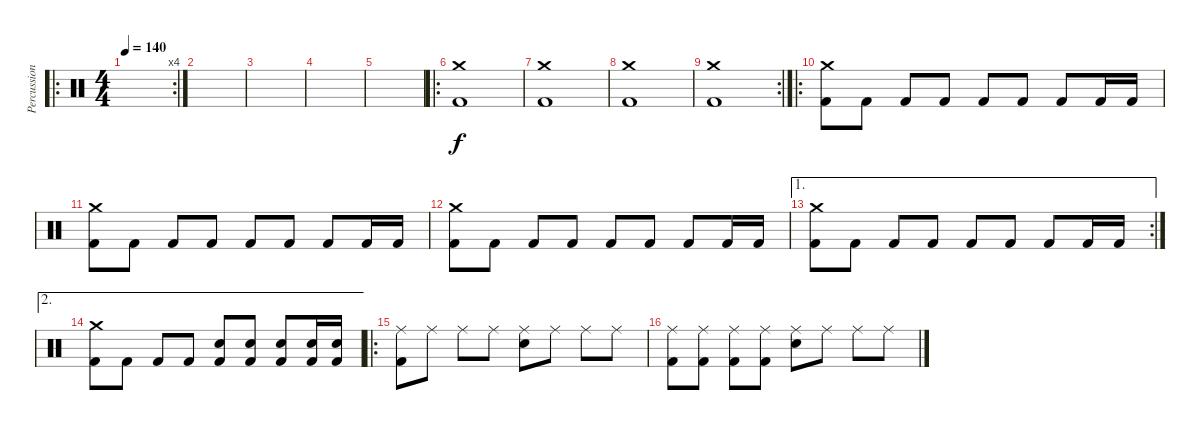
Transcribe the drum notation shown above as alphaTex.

\track ("Percussion" "Percussion") {instrument percussion}
\staff {score}
\articulation defaults
\ro
\rc 4
\ts (4 4)
\tempo 140
\clef neutral
\ks c
|
|
|
|
|
\ro
("Crash medium (hit)" "Kick (hit) 2").1 |
("Crash medium (hit)" "Kick (hit) 2").1 |
("Crash medium (hit)" "Kick (hit) 2").1 |
\rc 2
("Crash medium (hit)" "Kick (hit) 2").1 |
\ro
("Crash medium (hit)" "Kick (hit) 2").8 "Kick (hit) 2".8 "Kick (hit) 2".8 "Kick (hit) 2".8 "Kick (hit) 2".8 "Kick (hit) 2".8 "Kick (hit) 2".8 "Kick (hit) 2".16 "Kick (hit) 2".16 |
("Crash medium (hit)" "Kick (hit) 2").8 "Kick (hit) 2".8 "Kick (hit) 2".8 "Kick (hit) 2".8 "Kick (hit) 2".8 "Kick (hit) 2".8 "Kick (hit) 2".8 "Kick (hit) 2".16 "Kick (hit) 2".16 |
("Crash medium (hit)" "Kick (hit) 2").8 "Kick (hit) 2".8 "Kick (hit) 2".8 "Kick (hit) 2".8 "Kick (hit) 2".8 "Kick (hit) 2".8 "Kick (hit) 2".8 "Kick (hit) 2".16 "Kick (hit) 2".16 |
\ae 1
\rc 2
("Crash medium (hit)" "Kick (hit) 2").8 "Kick (hit) 2".8 "Kick (hit) 2".8 "Kick (hit) 2".8 "Kick (hit) 2".8 "Kick (hit) 2".8 "Kick (hit) 2".8 "Kick (hit) 2".16 "Kick (hit) 2".16 |
\ae 2
("Crash medium (hit)" "Kick (hit) 2").8 "Kick (hit) 2".8 "Kick (hit) 2".8 "Kick (hit) 2".8 ("Electric Snare (hit)" "Kick (hit) 2").8 ("Electric Snare (hit)" "Kick (hit) 2").8 ("Electric Snare (hit)" "Kick (hit) 2").8 ("Electric Snare (hit)" "Kick (hit) 2").16 ("Electric Snare (hit)" "Kick (hit) 2").16 |
\ro
("Ride (middle)" "Kick (hit) 2").8 "Ride (middle)".8 "Ride (middle)".8 "Ride (middle)".8 ("Ride (middle)" "Electric Snare (hit)").8 "Ride (middle)".8 "Ride (middle)".8 "Ride (middle)".8 |
("Ride (middle)" "Kick (hit) 2").8 ("Ride (middle)" "Kick (hit) 2").8 ("Ride (middle)" "Kick (hit) 2").8 ("Ride (middle)" "Kick (hit) 2").8 ("Ride (middle)" "Electric Snare (hit)").8 "Ride (middle)".8 "Ride (middle)".8 "Ride (middle)".8
